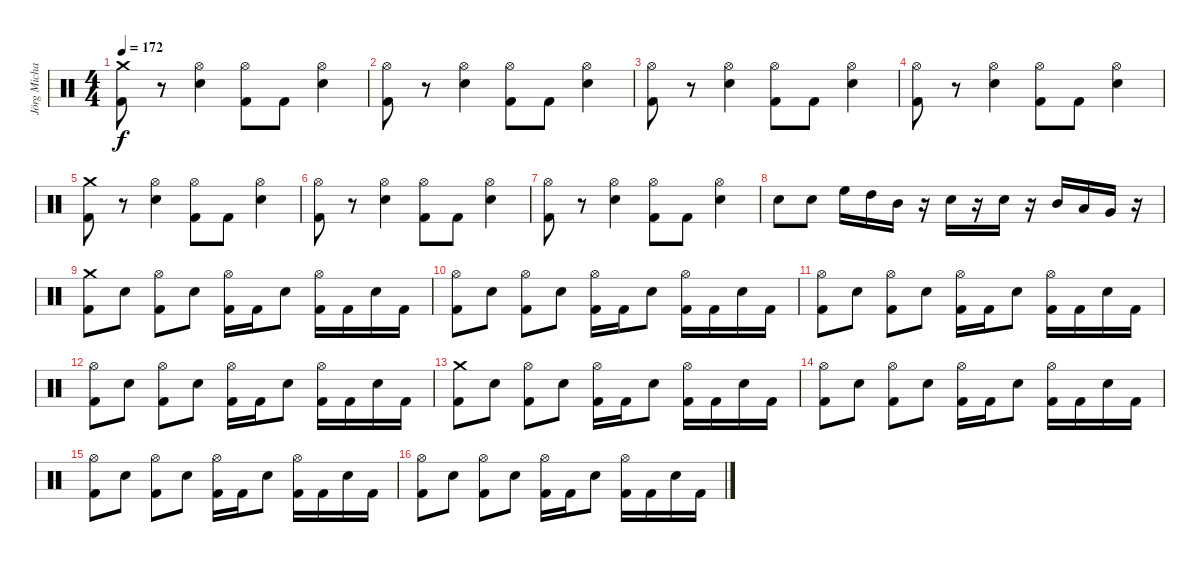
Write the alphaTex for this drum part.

\track ("Jörg Michael" "Jörg Micha") {instrument percussion}
\staff {score}
\articulation defaults
\ts (4 4)
\tempo 172
\clef neutral
\ks c
("Kick (hit) 2" "Crash medium (hit)").8{dy f} r.8 ("Hi-Hat (open)" "Electric Snare (hit)").4 ("Hi-Hat (open)" "Kick (hit) 2").8 "Kick (hit) 2".8 ("Hi-Hat (open)" "Electric Snare (hit)").4 |
("Hi-Hat (open)" "Kick (hit) 2").8 r.8 ("Hi-Hat (open)" "Electric Snare (hit)").4 ("Hi-Hat (open)" "Kick (hit) 2").8 "Kick (hit) 2".8 ("Hi-Hat (open)" "Electric Snare (hit)").4 |
("Hi-Hat (open)" "Kick (hit) 2").8 r.8 ("Hi-Hat (open)" "Electric Snare (hit)").4 ("Hi-Hat (open)" "Kick (hit) 2").8 "Kick (hit) 2".8 ("Hi-Hat (open)" "Electric Snare (hit)").4 |
("Hi-Hat (open)" "Kick (hit) 2").8 r.8 ("Hi-Hat (open)" "Electric Snare (hit)").4 ("Hi-Hat (open)" "Kick (hit) 2").8 "Kick (hit) 2".8 ("Hi-Hat (open)" "Electric Snare (hit)").4 |
("Kick (hit) 2" "Crash medium (hit)").8 r.8 ("Hi-Hat (open)" "Electric Snare (hit)").4 ("Hi-Hat (open)" "Kick (hit) 2").8 "Kick (hit) 2".8 ("Hi-Hat (open)" "Electric Snare (hit)").4 |
("Hi-Hat (open)" "Kick (hit) 2").8 r.8 ("Hi-Hat (open)" "Electric Snare (hit)").4 ("Hi-Hat (open)" "Kick (hit) 2").8 "Kick (hit) 2".8 ("Hi-Hat (open)" "Electric Snare (hit)").4 |
("Hi-Hat (open)" "Kick (hit) 2").8 r.8 ("Hi-Hat (open)" "Electric Snare (hit)").4 ("Hi-Hat (open)" "Kick (hit) 2").8 "Kick (hit) 2".8 ("Electric Snare (hit)" "Hi-Hat (open)").4 |
"Electric Snare (hit)".8 "Electric Snare (hit)".8 "High Floor Tom (hit)".16 "High Tom (hit)".16 "Mid Tom (hit)".16 r.16 "Electric Snare (hit)".16 r.16 "Electric Snare (hit)".16 r.16 "Mid Tom (hit)".16 "Low Tom (hit)".16 "Very Low Tom (hit)".16 r.16 |
("Crash medium (hit)" "Kick (hit) 2").8 "Electric Snare (hit)".8 ("Hi-Hat (open)" "Kick (hit) 2").8 "Electric Snare (hit)".8 ("Hi-Hat (open)" "Kick (hit) 2").16 "Kick (hit) 2".16 "Electric Snare (hit)".8 ("Hi-Hat (open)" "Kick (hit) 2").16 "Kick (hit) 2".16 "Electric Snare (hit)".16 "Kick (hit) 2".16 |
("Hi-Hat (open)" "Kick (hit) 2").8 "Electric Snare (hit)".8 ("Hi-Hat (open)" "Kick (hit) 2").8 "Electric Snare (hit)".8 ("Hi-Hat (open)" "Kick (hit) 2").16 "Kick (hit) 2".16 "Electric Snare (hit)".8 ("Hi-Hat (open)" "Kick (hit) 2").16 "Kick (hit) 2".16 "Electric Snare (hit)".16 "Kick (hit) 2".16 |
("Hi-Hat (open)" "Kick (hit) 2").8 "Electric Snare (hit)".8 ("Hi-Hat (open)" "Kick (hit) 2").8 "Electric Snare (hit)".8 ("Hi-Hat (open)" "Kick (hit) 2").16 "Kick (hit) 2".16 "Electric Snare (hit)".8 ("Hi-Hat (open)" "Kick (hit) 2").16 "Kick (hit) 2".16 "Electric Snare (hit)".16 "Kick (hit) 2".16 |
("Hi-Hat (open)" "Kick (hit) 2").8 "Electric Snare (hit)".8 ("Hi-Hat (open)" "Kick (hit) 2").8 "Electric Snare (hit)".8 ("Hi-Hat (open)" "Kick (hit) 2").16 "Kick (hit) 2".16 "Electric Snare (hit)".8 ("Hi-Hat (open)" "Kick (hit) 2").16 "Kick (hit) 2".16 "Electric Snare (hit)".16 "Kick (hit) 2".16 |
("Crash medium (hit)" "Kick (hit) 2").8 "Electric Snare (hit)".8 ("Hi-Hat (open)" "Kick (hit) 2").8 "Electric Snare (hit)".8 ("Hi-Hat (open)" "Kick (hit) 2").16 "Kick (hit) 2".16 "Electric Snare (hit)".8 ("Hi-Hat (open)" "Kick (hit) 2").16 "Kick (hit) 2".16 "Electric Snare (hit)".16 "Kick (hit) 2".16 |
("Hi-Hat (open)" "Kick (hit) 2").8 "Electric Snare (hit)".8 ("Hi-Hat (open)" "Kick (hit) 2").8 "Electric Snare (hit)".8 ("Hi-Hat (open)" "Kick (hit) 2").16 "Kick (hit) 2".16 "Electric Snare (hit)".8 ("Hi-Hat (open)" "Kick (hit) 2").16 "Kick (hit) 2".16 "Electric Snare (hit)".16 "Kick (hit) 2".16 |
("Hi-Hat (open)" "Kick (hit) 2").8 "Electric Snare (hit)".8 ("Hi-Hat (open)" "Kick (hit) 2").8 "Electric Snare (hit)".8 ("Hi-Hat (open)" "Kick (hit) 2").16 "Kick (hit) 2".16 "Electric Snare (hit)".8 ("Hi-Hat (open)" "Kick (hit) 2").16 "Kick (hit) 2".16 "Electric Snare (hit)".16 "Kick (hit) 2".16 |
("Hi-Hat (open)" "Kick (hit) 2").8 "Electric Snare (hit)".8 ("Hi-Hat (open)" "Kick (hit) 2").8 "Electric Snare (hit)".8 ("Hi-Hat (open)" "Kick (hit) 2").16 "Kick (hit) 2".16 "Electric Snare (hit)".8 ("Hi-Hat (open)" "Kick (hit) 2").16 "Kick (hit) 2".16 "Electric Snare (hit)".16 "Kick (hit) 2".16
